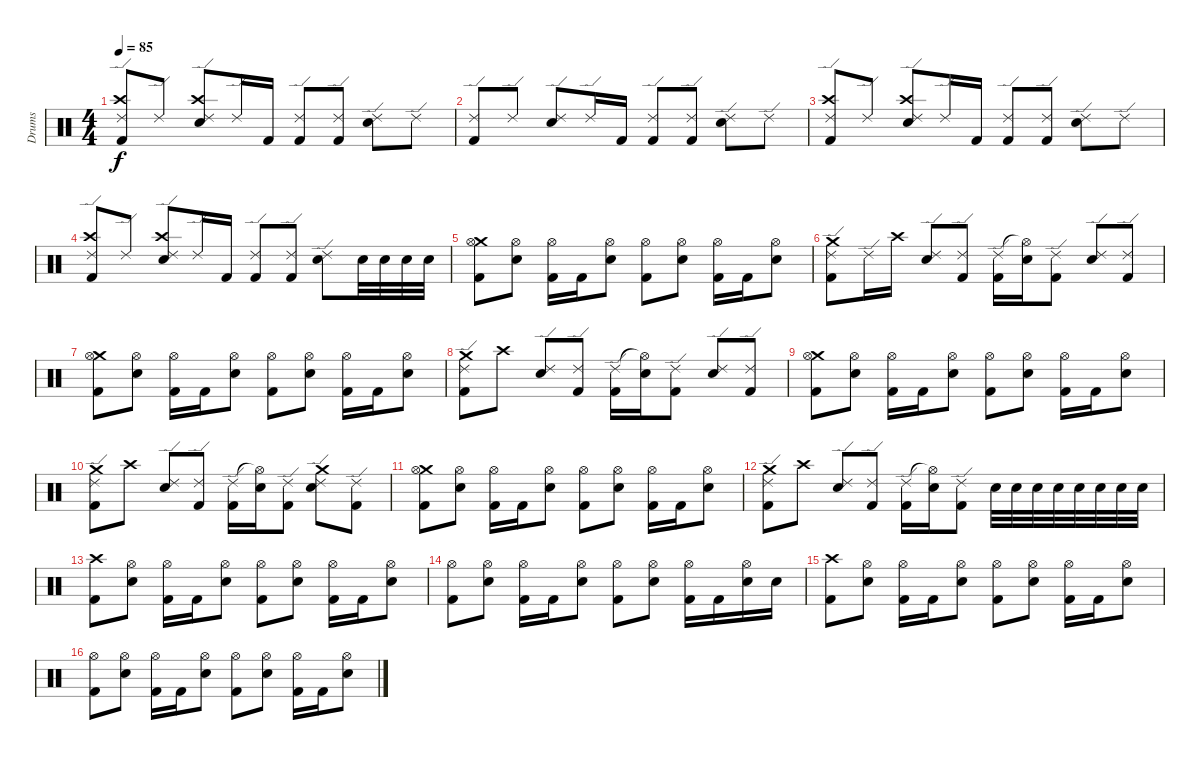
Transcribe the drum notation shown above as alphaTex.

\track ("Drums" "Drums") {instrument percussion}
\staff {score}
\articulation defaults
\ts (4 4)
\tempo 85
\clef neutral
\ks c
("Ride (edge) 2" "Crash high (hit)" "Kick (hit) 2").8{dy f} "Ride (edge) 2".8 ("Ride (edge) 2" "Crash high (hit)" "Snare (hit) 2").8 "Ride (edge) 2".16 "Kick (hit) 2".16 ("Ride (edge) 2" "Kick (hit) 2").8 ("Ride (edge) 2" "Kick (hit) 2").8 ("Ride (edge) 2" "Snare (hit) 2").8 "Ride (edge) 2".8 |
("Ride (edge) 2" "Kick (hit) 2").8 "Ride (edge) 2".8 ("Ride (edge) 2" "Snare (hit) 2").8 "Ride (edge) 2".16 "Kick (hit) 2".16 ("Ride (edge) 2" "Kick (hit) 2").8 ("Ride (edge) 2" "Kick (hit) 2").8 ("Ride (edge) 2" "Snare (hit) 2").8 "Ride (edge) 2".8 |
("Ride (edge) 2" "Crash high (hit)" "Kick (hit) 2").8 "Ride (edge) 2".8 ("Ride (edge) 2" "Crash high (hit)" "Snare (hit) 2").8 "Ride (edge) 2".16 "Kick (hit) 2".16 ("Ride (edge) 2" "Kick (hit) 2").8 ("Ride (edge) 2" "Kick (hit) 2").8 ("Ride (edge) 2" "Snare (hit) 2").8 "Ride (edge) 2".8 |
("Ride (edge) 2" "Crash high (hit)" "Kick (hit) 2").8 "Ride (edge) 2".8 ("Ride (edge) 2" "Crash high (hit)" "Snare (hit) 2").8 "Ride (edge) 2".16 "Kick (hit) 2".16 ("Ride (edge) 2" "Kick (hit) 2").8 ("Ride (edge) 2" "Kick (hit) 2").8 ("Ride (edge) 2" "Snare (hit) 2").8 "Electric Snare (hit)".32 "Electric Snare (hit)".32 "Electric Snare (hit)".32 "Electric Snare (hit)".32 |
("Crash medium (hit)" "Kick (hit) 2" "Hi-Hat (open)").8 ("Snare (hit)" "Hi-Hat (open)").8 ("Kick (hit) 2" "Hi-Hat (open)").16 "Kick (hit) 2".16 ("Snare (hit) 2" "Hi-Hat (open)").8 ("Kick (hit) 2" "Hi-Hat (open)").8 ("Snare (hit) 2" "Hi-Hat (open)").8 ("Kick (hit) 2" "Hi-Hat (open)").16 "Kick (hit) 2".16 ("Snare (hit) 2" "Hi-Hat (open)").8 |
("Ride (edge) 2" "Crash medium (hit)" "Kick (hit) 2").8 "Ride (edge) 2".16 "Crash high (hit)".16 ("Ride (edge) 2" "Snare (hit) 2").8 ("Ride (edge) 2" "Kick (hit) 2").8 ("Ride (edge) 2" "Kick (hit) 2").16 ("Hi-Hat (open)"{t} "Snare (hit) 2").16 ("Ride (edge) 2" "Kick (hit) 2").8 ("Ride (edge) 2" "Snare (hit) 2").8 ("Ride (edge) 2" "Kick (hit) 2").8 |
("Crash medium (hit)" "Kick (hit) 2" "Hi-Hat (open)").8 ("Snare (hit)" "Hi-Hat (open)").8 ("Kick (hit) 2" "Hi-Hat (open)").16 "Kick (hit) 2".16 ("Snare (hit) 2" "Hi-Hat (open)").8 ("Kick (hit) 2" "Hi-Hat (open)").8 ("Snare (hit) 2" "Hi-Hat (open)").8 ("Kick (hit) 2" "Hi-Hat (open)").16 "Kick (hit) 2".16 ("Snare (hit) 2" "Hi-Hat (open)").8 |
("Ride (edge) 2" "Crash medium (hit)" "Kick (hit) 2").8 "Crash high (hit)".8 ("Ride (edge) 2" "Snare (hit) 2").8 ("Ride (edge) 2" "Kick (hit) 2").8 ("Ride (edge) 2" "Kick (hit) 2").16 ("Hi-Hat (open)"{t} "Snare (hit) 2").16 ("Ride (edge) 2" "Kick (hit) 2").8 ("Ride (edge) 2" "Snare (hit) 2").8 ("Ride (edge) 2" "Kick (hit) 2").8 |
("Crash medium (hit)" "Kick (hit) 2" "Hi-Hat (open)").8 ("Snare (hit)" "Hi-Hat (open)").8 ("Kick (hit) 2" "Hi-Hat (open)").16 "Kick (hit) 2".16 ("Snare (hit) 2" "Hi-Hat (open)").8 ("Kick (hit) 2" "Hi-Hat (open)").8 ("Snare (hit) 2" "Hi-Hat (open)").8 ("Kick (hit) 2" "Hi-Hat (open)").16 "Kick (hit) 2".16 ("Snare (hit) 2" "Hi-Hat (open)").8 |
("Ride (edge) 2" "Crash medium (hit)" "Kick (hit) 2").8 "Crash high (hit)".8 ("Ride (edge) 2" "Snare (hit) 2").8 ("Ride (edge) 2" "Kick (hit) 2").8 ("Ride (edge) 2" "Kick (hit) 2").16 ("Hi-Hat (open)"{t} "Snare (hit) 2").16 ("Ride (edge) 2" "Kick (hit) 2").8 ("Crash medium (hit)" "Ride (edge) 2" "Snare (hit) 2").8 ("Ride (edge) 2" "Kick (hit) 2").8 |
("Crash medium (hit)" "Kick (hit) 2" "Hi-Hat (open)").8 ("Snare (hit)" "Hi-Hat (open)").8 ("Kick (hit) 2" "Hi-Hat (open)").16 "Kick (hit) 2".16 ("Snare (hit) 2" "Hi-Hat (open)").8 ("Kick (hit) 2" "Hi-Hat (open)").8 ("Snare (hit) 2" "Hi-Hat (open)").8 ("Kick (hit) 2" "Hi-Hat (open)").16 "Kick (hit) 2".16 ("Snare (hit) 2" "Hi-Hat (open)").8 |
("Ride (edge) 2" "Crash medium (hit)" "Kick (hit) 2").8 "Crash high (hit)".8 ("Ride (edge) 2" "Snare (hit) 2").8 ("Ride (edge) 2" "Kick (hit) 2").8 ("Ride (edge) 2" "Kick (hit) 2").16 ("Hi-Hat (open)"{t} "Snare (hit) 2").16 ("Ride (edge) 2" "Kick (hit) 2").8 "Electric Snare (hit)".32 "Electric Snare (hit)".32 "Electric Snare (hit)".32 "Electric Snare (hit)".32 "Electric Snare (hit)".32 "Electric Snare (hit)".32 "Electric Snare (hit)".32 "Electric Snare (hit)".32 |
("Crash high (hit)" "Kick (hit) 2").8 ("Snare (hit) 2" "Hi-Hat (open)").8 ("Kick (hit) 2" "Hi-Hat (open)").16 "Kick (hit) 2".16 ("Snare (hit) 2" "Hi-Hat (open)").8 ("Kick (hit) 2" "Hi-Hat (open)").8 ("Snare (hit) 2" "Hi-Hat (open)").8 ("Kick (hit) 2" "Hi-Hat (open)").16 "Kick (hit) 2".16 ("Snare (hit) 2" "Hi-Hat (open)").8 |
("Kick (hit) 2" "Hi-Hat (open)").8 ("Snare (hit) 2" "Hi-Hat (open)").8 ("Kick (hit) 2" "Hi-Hat (open)").16 "Kick (hit) 2".16 ("Snare (hit) 2" "Hi-Hat (open)").8 ("Kick (hit) 2" "Hi-Hat (open)").8 ("Snare (hit) 2" "Hi-Hat (open)").8 ("Kick (hit) 2" "Hi-Hat (open)").16 "Kick (hit) 2".16 ("Snare (hit) 2" "Hi-Hat (open)").16 "Snare (hit) 2".16 |
("Crash high (hit)" "Kick (hit) 2").8 ("Snare (hit) 2" "Hi-Hat (open)").8 ("Kick (hit) 2" "Hi-Hat (open)").16 "Kick (hit) 2".16 ("Snare (hit) 2" "Hi-Hat (open)").8 ("Kick (hit) 2" "Hi-Hat (open)").8 ("Snare (hit) 2" "Hi-Hat (open)").8 ("Kick (hit) 2" "Hi-Hat (open)").16 "Kick (hit) 2".16 ("Snare (hit) 2" "Hi-Hat (open)").8 |
("Kick (hit) 2" "Hi-Hat (open)").8 ("Snare (hit) 2" "Hi-Hat (open)").8 ("Kick (hit) 2" "Hi-Hat (open)").16 "Kick (hit) 2".16 ("Snare (hit) 2" "Hi-Hat (open)").8 ("Kick (hit) 2" "Hi-Hat (open)").8 ("Snare (hit) 2" "Hi-Hat (open)").8 ("Kick (hit) 2" "Hi-Hat (open)").16 "Kick (hit) 2".16 ("Snare (hit) 2" "Hi-Hat (open)").8
